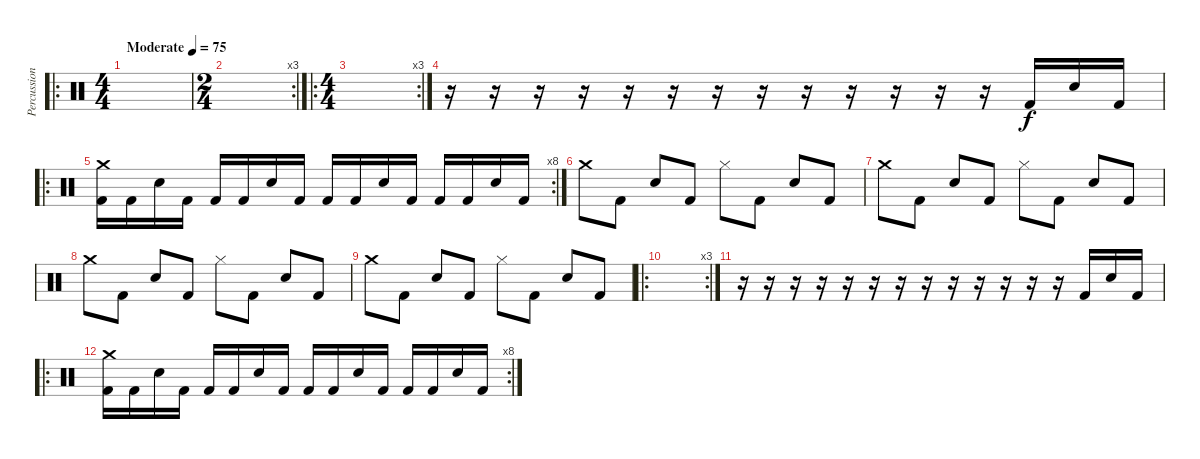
\track ("Percussion" "Percussion") {instrument percussion}
\staff {score}
\articulation defaults
\ro
\ts (4 4)
\tempo (75 "Moderate")
\clef neutral
\ks c
|
\rc 3
\ts (2 4)
|
\ro
\rc 3
\ts (4 4)
|
r.16 r.16 r.16 r.16 r.16 r.16 r.16 r.16 r.16 r.16 r.16 r.16 r.16 "Kick (hit) 2".16 "Electric Snare (hit)".16 "Kick (hit) 2".16 |
\ro
\rc 8
("Crash medium (hit)" "Kick (hit) 2").16 "Kick (hit) 2".16 "Electric Snare (hit)".16 "Kick (hit) 2".16 "Kick (hit) 2".16 "Kick (hit) 2".16 "Electric Snare (hit)".16 "Kick (hit) 2".16 "Kick (hit) 2".16 "Kick (hit) 2".16 "Electric Snare (hit)".16 "Kick (hit) 2".16 "Kick (hit) 2".16 "Kick (hit) 2".16 "Electric Snare (hit)".16 "Kick (hit) 2".16 |
"Crash medium (hit)".8 "Kick (hit) 2".8 "Electric Snare (hit)".8 "Kick (hit) 2".8 "Hi-Hat (closed)".8 "Kick (hit) 2".8 "Electric Snare (hit)".8 "Kick (hit) 2".8 |
"Crash medium (hit)".8 "Kick (hit) 2".8 "Electric Snare (hit)".8 "Kick (hit) 2".8 "Hi-Hat (closed)".8 "Kick (hit) 2".8 "Electric Snare (hit)".8 "Kick (hit) 2".8 |
"Crash medium (hit)".8 "Kick (hit) 2".8 "Electric Snare (hit)".8 "Kick (hit) 2".8 "Hi-Hat (closed)".8 "Kick (hit) 2".8 "Electric Snare (hit)".8 "Kick (hit) 2".8 |
"Crash medium (hit)".8 "Kick (hit) 2".8 "Electric Snare (hit)".8 "Kick (hit) 2".8 "Hi-Hat (closed)".8 "Kick (hit) 2".8 "Electric Snare (hit)".8 "Kick (hit) 2".8 |
\ro
\rc 3
|
r.16 r.16 r.16 r.16 r.16 r.16 r.16 r.16 r.16 r.16 r.16 r.16 r.16 "Kick (hit) 2".16 "Electric Snare (hit)".16 "Kick (hit) 2".16 |
\ro
\rc 8
("Crash medium (hit)" "Kick (hit) 2").16 "Kick (hit) 2".16 "Electric Snare (hit)".16 "Kick (hit) 2".16 "Kick (hit) 2".16 "Kick (hit) 2".16 "Electric Snare (hit)".16 "Kick (hit) 2".16 "Kick (hit) 2".16 "Kick (hit) 2".16 "Electric Snare (hit)".16 "Kick (hit) 2".16 "Kick (hit) 2".16 "Kick (hit) 2".16 "Electric Snare (hit)".16 "Kick (hit) 2".16
